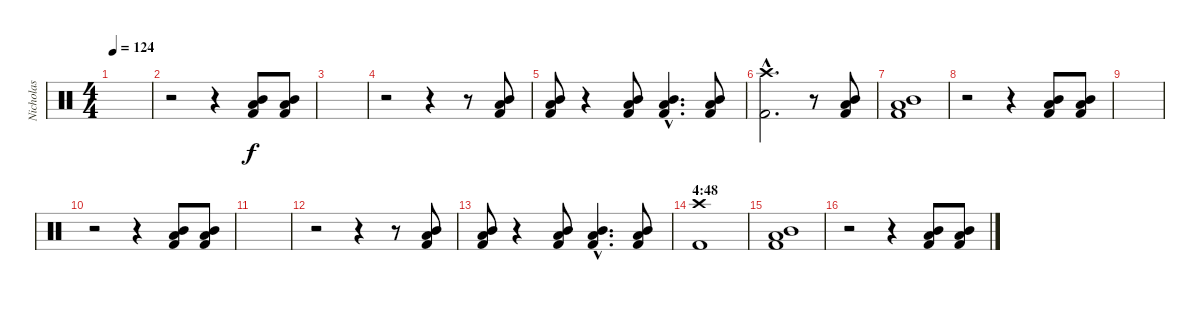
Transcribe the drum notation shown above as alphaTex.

\track ("Nicholas" "Nicholas") {instrument percussion}
\staff {score}
\articulation defaults
\ts (4 4)
\tempo 124
\clef neutral
\ks c
|
r.2 r.4 ("Kick (hit) 2" "Mid Tom (hit)" "Low Tom (hit)").8 ("Kick (hit) 2" "Mid Tom (hit)" "Low Tom (hit)").8 |
|
r.2 r.4 r.8 ("Kick (hit) 2" "Mid Tom (hit)" "Low Tom (hit)").8 |
("Kick (hit) 2" "Mid Tom (hit)" "Low Tom (hit)").8 r.4 ("Kick (hit) 2" "Mid Tom (hit)" "Low Tom (hit)").8 ("Kick (hit) 2"{hac} "Mid Tom (hit)"{hac} "Low Tom (hit)"{hac}).4{d} ("Kick (hit) 2" "Mid Tom (hit)" "Low Tom (hit)").8 |
("Kick (hit) 2"{hac} "Crash high (hit)"{hac}).2{d} r.8 ("Kick (hit) 2" "Mid Tom (hit)" "Low Tom (hit)").8 |
("Kick (hit) 2" "Low Tom (hit)" "Mid Tom (hit)").1 |
r.2 r.4 ("Kick (hit) 2" "Mid Tom (hit)" "Low Tom (hit)").8 ("Kick (hit) 2" "Mid Tom (hit)" "Low Tom (hit)").8 |
|
r.2 r.4 ("Kick (hit) 2" "Mid Tom (hit)" "Low Tom (hit)").8 ("Kick (hit) 2" "Mid Tom (hit)" "Low Tom (hit)").8 |
|
r.2 r.4 r.8 ("Kick (hit) 2" "Mid Tom (hit)" "Low Tom (hit)").8 |
("Kick (hit) 2" "Mid Tom (hit)" "Low Tom (hit)").8 r.4 ("Kick (hit) 2" "Mid Tom (hit)" "Low Tom (hit)").8 ("Kick (hit) 2"{hac} "Mid Tom (hit)"{hac} "Low Tom (hit)"{hac}).4{d} ("Kick (hit) 2" "Mid Tom (hit)" "Low Tom (hit)").8 |
\section ("" "4:48")
("Kick (hit) 2" "Crash high (hit)").1 |
("Kick (hit) 2" "Low Tom (hit)" "Mid Tom (hit)").1 |
r.2 r.4 ("Kick (hit) 2" "Mid Tom (hit)" "Low Tom (hit)").8 ("Kick (hit) 2" "Mid Tom (hit)" "Low Tom (hit)").8
